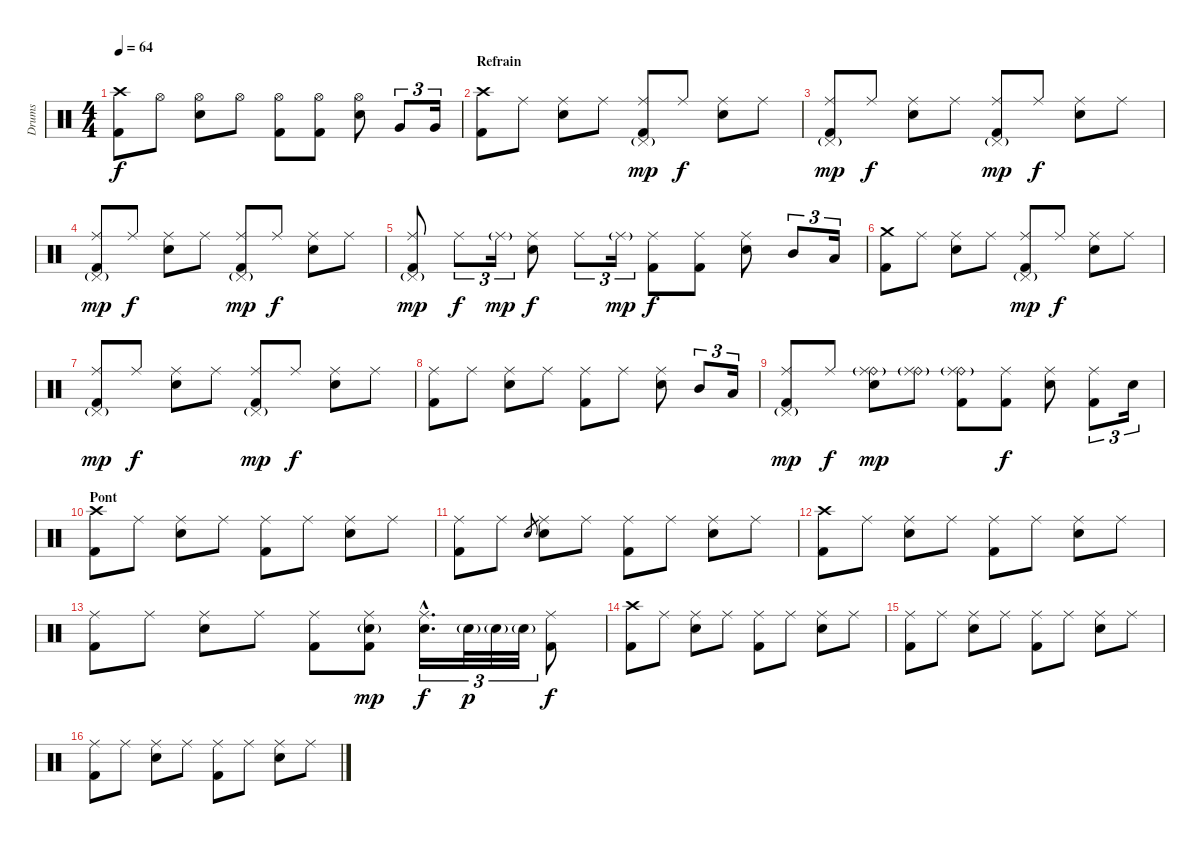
\track ("Drums" "Drums") {instrument percussion}
\staff {score}
\articulation defaults
\ts (4 4)
\tempo 64
\clef neutral
\ks c
("Crash high (hit)" "Kick (hit) 2").8{dy f} "Hi-Hat (open)".8 ("Hi-Hat (open)" "Electric Snare (hit)").8 "Hi-Hat (open)".8 ("Hi-Hat (open)" "Kick (hit) 2").8 ("Hi-Hat (open)" "Kick (hit) 2").8 ("Hi-Hat (open)" "Electric Snare (hit)").8 "Very Low Tom (hit)".8{tu (3 2)} "Very Low Tom (hit)".16{tu (3 2)} |
\section ("" "Refrain")
("Crash high (hit)" "Kick (hit) 2").8 "Ride (middle)".8 ("Ride (middle)" "Electric Snare (hit)").8 "Ride (middle)".8 ("Ride (middle)" "Pedal Hi-Hat (hit)"{g} "Kick (hit) 2").8{dy mp} "Ride (middle)".8{dy f} ("Ride (middle)" "Electric Snare (hit)").8 "Ride (middle)".8 |
("Ride (middle)" "Pedal Hi-Hat (hit)"{g} "Kick (hit) 2").8{dy mp} "Ride (middle)".8{dy f} ("Ride (middle)" "Electric Snare (hit)").8 "Ride (middle)".8 ("Ride (middle)" "Pedal Hi-Hat (hit)"{g} "Kick (hit) 2").8{dy mp} "Ride (middle)".8{dy f} ("Ride (middle)" "Electric Snare (hit)").8 "Ride (middle)".8 |
("Ride (middle)" "Pedal Hi-Hat (hit)"{g} "Kick (hit) 2").8{dy mp} "Ride (middle)".8{dy f} ("Ride (middle)" "Electric Snare (hit)").8 "Ride (middle)".8 ("Ride (middle)" "Pedal Hi-Hat (hit)"{g} "Kick (hit) 2").8{dy mp} "Ride (middle)".8{dy f} ("Ride (middle)" "Electric Snare (hit)").8 "Ride (middle)".8 |
("Ride (middle)" "Pedal Hi-Hat (hit)"{g} "Kick (hit) 2").8{dy mp} "Ride (middle)".8{tu (3 2) dy f} "Ride (middle)"{g}.16{tu (3 2) dy mp} ("Ride (middle)" "Electric Snare (hit)").8{dy f} "Ride (middle)".8{tu (3 2)} "Ride (middle)"{g}.16{tu (3 2) dy mp} ("Ride (middle)" "Kick (hit) 2").8{dy f} ("Ride (middle)" "Kick (hit) 2").8 ("Ride (middle)" "Electric Snare (hit)").8 "Mid Tom (hit)".8{tu (3 2)} "Low Tom (hit)".16{tu (3 2)} |
("Crash medium (hit)" "Kick (hit) 2").8 "Ride (middle)".8 ("Ride (middle)" "Electric Snare (hit)").8 "Ride (middle)".8 ("Ride (middle)" "Pedal Hi-Hat (hit)"{g} "Kick (hit) 2").8{dy mp} "Ride (middle)".8{dy f} ("Ride (middle)" "Electric Snare (hit)").8 "Ride (middle)".8 |
("Ride (middle)" "Pedal Hi-Hat (hit)"{g} "Kick (hit) 2").8{dy mp} "Ride (middle)".8{dy f} ("Ride (middle)" "Electric Snare (hit)").8 "Ride (middle)".8 ("Ride (middle)" "Pedal Hi-Hat (hit)"{g} "Kick (hit) 2").8{dy mp} "Ride (middle)".8{dy f} ("Ride (middle)" "Electric Snare (hit)").8 "Ride (middle)".8 |
("Ride (middle)" "Kick (hit) 2").8 "Ride (middle)".8 ("Ride (middle)" "Electric Snare (hit)").8 "Ride (middle)".8 ("Ride (middle)" "Kick (hit) 2").8 "Ride (middle)".8 ("Ride (middle)" "Electric Snare (hit)").8 "Mid Tom (hit)".8{tu (3 2)} "Low Tom (hit)".16{tu (3 2)} |
("Ride (middle)" "Pedal Hi-Hat (hit)"{g} "Kick (hit) 2").8{dy mp} "Ride (middle)".8{dy f} ("Ride (bell)"{g} "Ride (middle)" "Electric Snare (hit)").8{dy mp} ("Ride (bell)"{g} "Ride (middle)").8 ("Ride (bell)"{g} "Ride (middle)" "Kick (hit) 2").8 ("Ride (middle)" "Kick (hit) 2").8{dy f} ("Ride (middle)" "Electric Snare (hit)").8 ("Ride (middle)" "Kick (hit) 2").8{tu (3 2)} "Electric Snare (hit)".16{tu (3 2)} |
\section ("" "Pont")
("Crash high (hit)" "Kick (hit) 2").8 "Ride (middle)".8 ("Ride (middle)" "Electric Snare (hit)").8 "Ride (middle)".8 ("Ride (middle)" "Kick (hit) 2").8 "Ride (middle)".8 ("Ride (middle)" "Electric Snare (hit)").8 "Ride (middle)".8 |
("Ride (middle)" "Kick (hit) 2").8 "Ride (middle)".8 "Electric Snare (hit)".8{gr} ("Ride (middle)" "Electric Snare (hit)").8 "Ride (middle)".8 ("Ride (middle)" "Kick (hit) 2").8 "Ride (middle)".8 ("Ride (middle)" "Electric Snare (hit)").8 "Ride (middle)".8 |
("Crash high (hit)" "Kick (hit) 2").8 "Ride (middle)".8 ("Ride (middle)" "Electric Snare (hit)").8 "Ride (middle)".8 ("Ride (middle)" "Kick (hit) 2").8 "Ride (middle)".8 ("Ride (middle)" "Electric Snare (hit)").8 "Ride (middle)".8 |
("Ride (middle)" "Kick (hit) 2").8 "Ride (middle)".8 ("Ride (middle)" "Electric Snare (hit)").8 "Ride (middle)".8 ("Ride (middle)" "Kick (hit) 2").8 ("Ride (middle)" "Electric Snare (hit)"{g} "Kick (hit) 2").8{dy mp} ("Ride (middle)"{hac} "Electric Snare (hit)"{hac}).16{d tu (3 2) dy f} "Electric Snare (hit)"{g}.32{tu (3 2) dy p} "Electric Snare (hit)"{g}.32{tu (3 2)} "Electric Snare (hit)"{g}.32{tu (3 2)} ("Ride (middle)" "Kick (hit) 2").8{dy f} |
("Crash high (hit)" "Kick (hit) 2").8 "Ride (middle)".8 ("Ride (middle)" "Electric Snare (hit)").8 "Ride (middle)".8 ("Ride (middle)" "Kick (hit) 2").8 "Ride (middle)".8 ("Ride (middle)" "Electric Snare (hit)").8 "Ride (middle)".8 |
("Ride (middle)" "Kick (hit) 2").8 "Ride (middle)".8 ("Ride (middle)" "Electric Snare (hit)").8 "Ride (middle)".8 ("Ride (middle)" "Kick (hit) 2").8 "Ride (middle)".8 ("Ride (middle)" "Electric Snare (hit)").8 "Ride (middle)".8 |
("Ride (middle)" "Kick (hit) 2").8 "Ride (middle)".8 ("Ride (middle)" "Electric Snare (hit)").8 "Ride (middle)".8 ("Ride (middle)" "Kick (hit) 2").8 "Ride (middle)".8 ("Ride (middle)" "Electric Snare (hit)").8 "Ride (middle)".8
